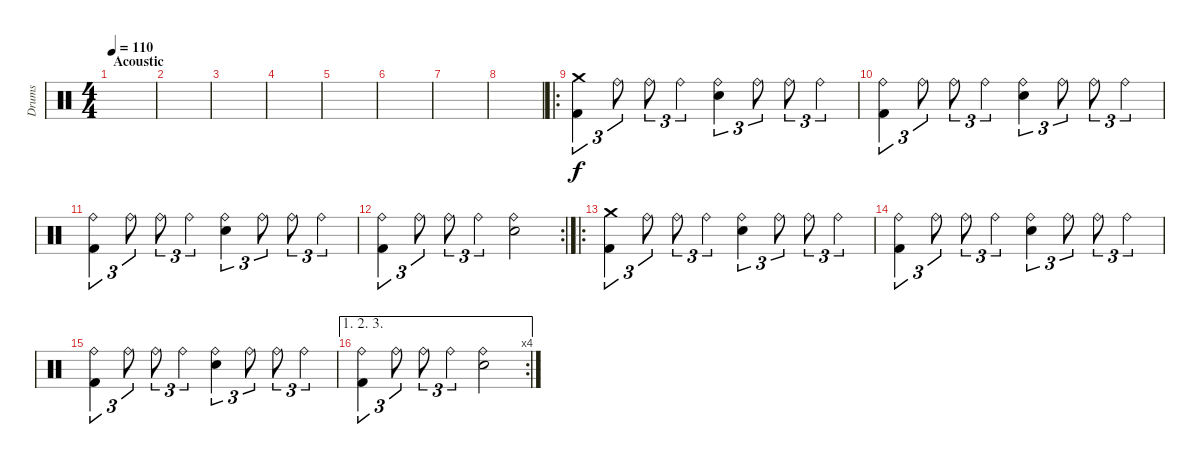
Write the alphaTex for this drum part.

\track ("Drums" "Drums") {instrument percussion}
\staff {score}
\articulation defaults
\ts (4 4)
\section ("" "Acoustic")
\tempo 110
\clef neutral
\ks c
|
|
|
|
|
|
|
|
\ro
("Crash medium (hit)" "Kick (hit) 2").4{tu (3 2)} "Ride (bell)".8{tu (3 2)} "Ride (bell)".8{tu (3 2)} "Ride (bell)".4{tu (3 2)} ("Ride (bell)" "Snare (hit) 2").4{tu (3 2)} "Ride (bell)".8{tu (3 2)} "Ride (bell)".8{tu (3 2)} "Ride (bell)".4{tu (3 2)} |
("Ride (bell)" "Kick (hit) 2").4{tu (3 2)} "Ride (bell)".8{tu (3 2)} "Ride (bell)".8{tu (3 2)} "Ride (bell)".4{tu (3 2)} ("Ride (bell)" "Snare (hit) 2").4{tu (3 2)} "Ride (bell)".8{tu (3 2)} "Ride (bell)".8{tu (3 2)} "Ride (bell)".4{tu (3 2)} |
("Ride (bell)" "Kick (hit) 2").4{tu (3 2)} "Ride (bell)".8{tu (3 2)} "Ride (bell)".8{tu (3 2)} "Ride (bell)".4{tu (3 2)} ("Ride (bell)" "Snare (hit) 2").4{tu (3 2)} "Ride (bell)".8{tu (3 2)} "Ride (bell)".8{tu (3 2)} "Ride (bell)".4{tu (3 2)} |
\rc 2
("Ride (bell)" "Kick (hit) 2").4{tu (3 2)} "Ride (bell)".8{tu (3 2)} "Ride (bell)".8{tu (3 2)} "Ride (bell)".4{tu (3 2)} ("Ride (bell)" "Snare (hit) 2").2 |
\ro
("Crash medium (hit)" "Kick (hit) 2").4{tu (3 2)} "Ride (bell)".8{tu (3 2)} "Ride (bell)".8{tu (3 2)} "Ride (bell)".4{tu (3 2)} ("Ride (bell)" "Snare (hit) 2").4{tu (3 2)} "Ride (bell)".8{tu (3 2)} "Ride (bell)".8{tu (3 2)} "Ride (bell)".4{tu (3 2)} |
("Ride (bell)" "Kick (hit) 2").4{tu (3 2)} "Ride (bell)".8{tu (3 2)} "Ride (bell)".8{tu (3 2)} "Ride (bell)".4{tu (3 2)} ("Ride (bell)" "Snare (hit) 2").4{tu (3 2)} "Ride (bell)".8{tu (3 2)} "Ride (bell)".8{tu (3 2)} "Ride (bell)".4{tu (3 2)} |
("Ride (bell)" "Kick (hit) 2").4{tu (3 2)} "Ride (bell)".8{tu (3 2)} "Ride (bell)".8{tu (3 2)} "Ride (bell)".4{tu (3 2)} ("Ride (bell)" "Snare (hit) 2").4{tu (3 2)} "Ride (bell)".8{tu (3 2)} "Ride (bell)".8{tu (3 2)} "Ride (bell)".4{tu (3 2)} |
\ae (1 2 3)
\rc 4
("Ride (bell)" "Kick (hit) 2").4{tu (3 2)} "Ride (bell)".8{tu (3 2)} "Ride (bell)".8{tu (3 2)} "Ride (bell)".4{tu (3 2)} ("Ride (bell)" "Snare (hit) 2").2
